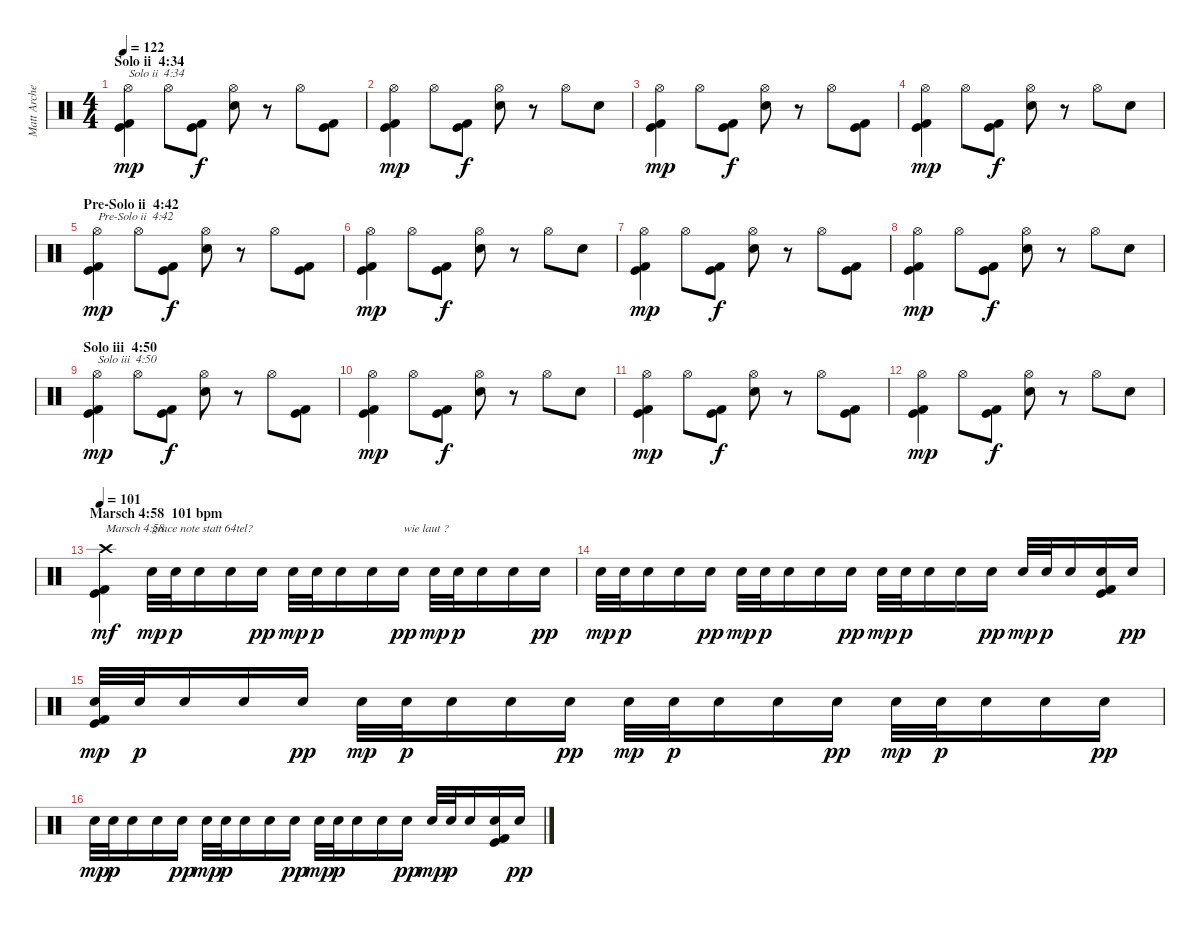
\track ("Matt Archer" "Matt Arche") {instrument percussion}
\staff {score}
\articulation defaults
\ts (4 4)
\section ("" "Solo ii  4:34")
\tempo 122
\clef neutral
\ks c
("Kick (hit)" "Kick (hit) 2" "Hi-Hat (open)").4{txt "Solo ii  4:34" dy mp} "Hi-Hat (open)".8 ("Kick (hit)" "Kick (hit) 2").8{dy f} ("Electric Snare (hit)" "Hi-Hat (open)").8 r.8 "Hi-Hat (open)".8 ("Kick (hit)" "Kick (hit) 2").8 |
("Kick (hit)" "Kick (hit) 2" "Hi-Hat (open)").4{dy mp} "Hi-Hat (open)".8 ("Kick (hit)" "Kick (hit) 2").8{dy f} ("Electric Snare (hit)" "Hi-Hat (open)").8 r.8 "Hi-Hat (open)".8 "Electric Snare (hit)".8 |
("Kick (hit)" "Kick (hit) 2" "Hi-Hat (open)").4{dy mp} "Hi-Hat (open)".8 ("Kick (hit)" "Kick (hit) 2").8{dy f} ("Electric Snare (hit)" "Hi-Hat (open)").8 r.8 "Hi-Hat (open)".8 ("Kick (hit)" "Kick (hit) 2").8 |
("Kick (hit)" "Kick (hit) 2" "Hi-Hat (open)").4{dy mp} "Hi-Hat (open)".8 ("Kick (hit)" "Kick (hit) 2").8{dy f} ("Electric Snare (hit)" "Hi-Hat (open)").8 r.8 "Hi-Hat (open)".8 "Electric Snare (hit)".8 |
\section ("" "Pre-Solo ii  4:42")
("Kick (hit)" "Kick (hit) 2" "Hi-Hat (open)").4{txt "Pre-Solo ii  4:42" dy mp} "Hi-Hat (open)".8 ("Kick (hit)" "Kick (hit) 2").8{dy f} ("Electric Snare (hit)" "Hi-Hat (open)").8 r.8 "Hi-Hat (open)".8 ("Kick (hit)" "Kick (hit) 2").8 |
("Kick (hit)" "Kick (hit) 2" "Hi-Hat (open)").4{dy mp} "Hi-Hat (open)".8 ("Kick (hit)" "Kick (hit) 2").8{dy f} ("Electric Snare (hit)" "Hi-Hat (open)").8 r.8 "Hi-Hat (open)".8 "Electric Snare (hit)".8 |
("Kick (hit)" "Kick (hit) 2" "Hi-Hat (open)").4{dy mp} "Hi-Hat (open)".8 ("Kick (hit)" "Kick (hit) 2").8{dy f} ("Electric Snare (hit)" "Hi-Hat (open)").8 r.8 "Hi-Hat (open)".8 ("Kick (hit)" "Kick (hit) 2").8 |
("Kick (hit)" "Kick (hit) 2" "Hi-Hat (open)").4{dy mp} "Hi-Hat (open)".8 ("Kick (hit)" "Kick (hit) 2").8{dy f} ("Electric Snare (hit)" "Hi-Hat (open)").8 r.8 "Hi-Hat (open)".8 "Electric Snare (hit)".8 |
\section ("" "Solo iii  4:50")
("Kick (hit)" "Kick (hit) 2" "Hi-Hat (open)").4{txt "Solo iii  4:50" dy mp} "Hi-Hat (open)".8 ("Kick (hit)" "Kick (hit) 2").8{dy f} ("Electric Snare (hit)" "Hi-Hat (open)").8 r.8 "Hi-Hat (open)".8 ("Kick (hit)" "Kick (hit) 2").8 |
("Kick (hit)" "Kick (hit) 2" "Hi-Hat (open)").4{dy mp} "Hi-Hat (open)".8 ("Kick (hit)" "Kick (hit) 2").8{dy f} ("Electric Snare (hit)" "Hi-Hat (open)").8 r.8 "Hi-Hat (open)".8 "Electric Snare (hit)".8 |
("Kick (hit)" "Kick (hit) 2" "Hi-Hat (open)").4{dy mp} "Hi-Hat (open)".8 ("Kick (hit)" "Kick (hit) 2").8{dy f} ("Electric Snare (hit)" "Hi-Hat (open)").8 r.8 "Hi-Hat (open)".8 ("Kick (hit)" "Kick (hit) 2").8 |
("Kick (hit)" "Kick (hit) 2" "Hi-Hat (open)").4{dy mp} "Hi-Hat (open)".8 ("Kick (hit)" "Kick (hit) 2").8{dy f} ("Electric Snare (hit)" "Hi-Hat (open)").8 r.8 "Hi-Hat (open)".8 "Electric Snare (hit)".8 |
\section ("" "Marsch 4:58  101 bpm")
\tempo 101
("Kick (hit)" "Kick (hit) 2" "Crash high (hit)").4{txt "Marsch 4:58" dy mf} "Electric Snare (hit)".32{txt "grace note statt 64tel?" dy mp} "Electric Snare (hit)".32{dy p} "Electric Snare (hit)".16 "Electric Snare (hit)".16 "Electric Snare (hit)".16{dy pp} "Electric Snare (hit)".32{dy mp} "Electric Snare (hit)".32{dy p} "Electric Snare (hit)".16 "Electric Snare (hit)".16 "Electric Snare (hit)".16{txt "wie laut ?" dy pp} "Electric Snare (hit)".32{dy mp} "Electric Snare (hit)".32{dy p} "Electric Snare (hit)".16 "Electric Snare (hit)".16 "Electric Snare (hit)".16{dy pp} |
"Electric Snare (hit)".32{dy mp} "Electric Snare (hit)".32{dy p} "Electric Snare (hit)".16 "Electric Snare (hit)".16 "Electric Snare (hit)".16{dy pp} "Electric Snare (hit)".32{dy mp} "Electric Snare (hit)".32{dy p} "Electric Snare (hit)".16 "Electric Snare (hit)".16 "Electric Snare (hit)".16{dy pp} "Electric Snare (hit)".32{dy mp} "Electric Snare (hit)".32{dy p} "Electric Snare (hit)".16 "Electric Snare (hit)".16 "Electric Snare (hit)".16{dy pp} "Electric Snare (hit)".32{dy mp} "Electric Snare (hit)".32{dy p} "Electric Snare (hit)".16 ("Kick (hit)" "Kick (hit) 2" "Electric Snare (hit)").16 "Electric Snare (hit)".16{dy pp} |
("Kick (hit)" "Kick (hit) 2" "Electric Snare (hit)").32{dy mp} "Electric Snare (hit)".32{dy p} "Electric Snare (hit)".16 "Electric Snare (hit)".16 "Electric Snare (hit)".16{dy pp} "Electric Snare (hit)".32{dy mp} "Electric Snare (hit)".32{dy p} "Electric Snare (hit)".16 "Electric Snare (hit)".16 "Electric Snare (hit)".16{dy pp} "Electric Snare (hit)".32{dy mp} "Electric Snare (hit)".32{dy p} "Electric Snare (hit)".16 "Electric Snare (hit)".16 "Electric Snare (hit)".16{dy pp} "Electric Snare (hit)".32{dy mp} "Electric Snare (hit)".32{dy p} "Electric Snare (hit)".16 "Electric Snare (hit)".16 "Electric Snare (hit)".16{dy pp} |
"Electric Snare (hit)".32{dy mp} "Electric Snare (hit)".32{dy p} "Electric Snare (hit)".16 "Electric Snare (hit)".16 "Electric Snare (hit)".16{dy pp} "Electric Snare (hit)".32{dy mp} "Electric Snare (hit)".32{dy p} "Electric Snare (hit)".16 "Electric Snare (hit)".16 "Electric Snare (hit)".16{dy pp} "Electric Snare (hit)".32{dy mp} "Electric Snare (hit)".32{dy p} "Electric Snare (hit)".16 "Electric Snare (hit)".16 "Electric Snare (hit)".16{dy pp} "Electric Snare (hit)".32{dy mp} "Electric Snare (hit)".32{dy p} "Electric Snare (hit)".16 ("Kick (hit)" "Kick (hit) 2" "Electric Snare (hit)").16 "Electric Snare (hit)".16{dy pp}
